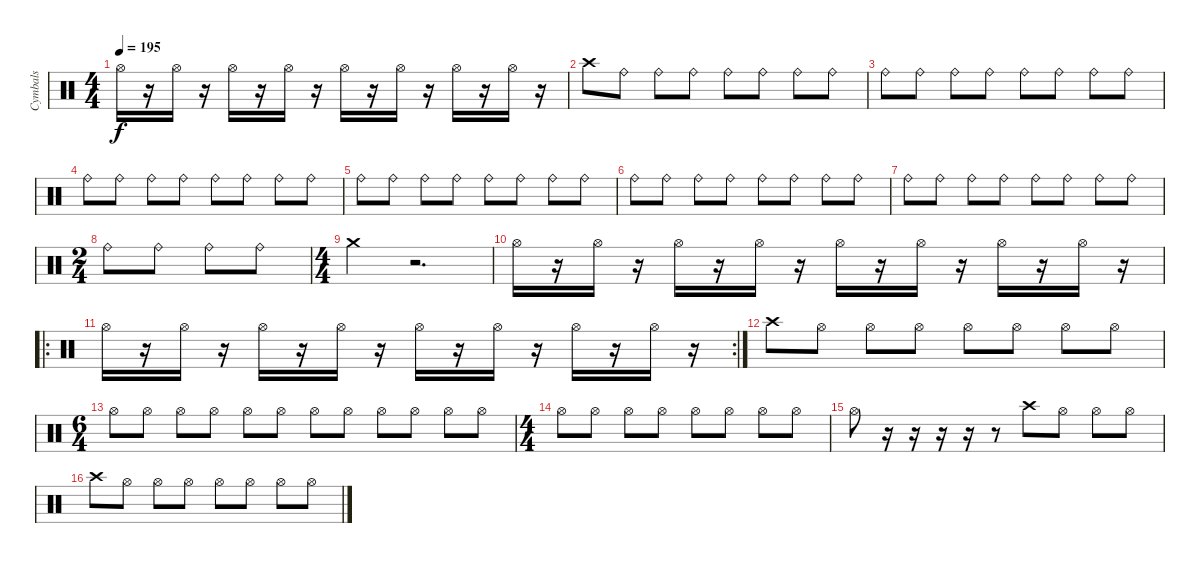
\track ("Cymbals" "Cymbals") {instrument percussion}
\staff {score}
\articulation defaults
\ts (4 4)
\tempo 195
\clef neutral
\ks c "Hi-Hat (open)".16{dy f}
r.16 "Hi-Hat (open)".16 r.16 "Hi-Hat (open)".16 r.16 "Hi-Hat (open)".16 r.16 "Hi-Hat (open)".16 r.16 "Hi-Hat (open)".16 r.16 "Hi-Hat (open)".16 r.16 "Hi-Hat (open)".16 r.16 |
"Crash high (hit)".8 "Ride (bell)".8 "Ride (bell)".8 "Ride (bell)".8 "Ride (bell)".8 "Ride (bell)".8 "Ride (bell)".8 "Ride (bell)".8 |
"Ride (bell)".8 "Ride (bell)".8 "Ride (bell)".8 "Ride (bell)".8 "Ride (bell)".8 "Ride (bell)".8 "Ride (bell)".8 "Ride (bell)".8 |
"Ride (bell)".8 "Ride (bell)".8 "Ride (bell)".8 "Ride (bell)".8 "Ride (bell)".8 "Ride (bell)".8 "Ride (bell)".8 "Ride (bell)".8 |
"Ride (bell)".8 "Ride (bell)".8 "Ride (bell)".8 "Ride (bell)".8 "Ride (bell)".8 "Ride (bell)".8 "Ride (bell)".8 "Ride (bell)".8 |
"Ride (bell)".8 "Ride (bell)".8 "Ride (bell)".8 "Ride (bell)".8 "Ride (bell)".8 "Ride (bell)".8 "Ride (bell)".8 "Ride (bell)".8 |
"Ride (bell)".8 "Ride (bell)".8 "Ride (bell)".8 "Ride (bell)".8 "Ride (bell)".8 "Ride (bell)".8 "Ride (bell)".8 "Ride (bell)".8 |
\ts (2 4)
"Ride (bell)".8 "Ride (bell)".8 "Ride (bell)".8 "Ride (bell)".8 |
\ts (4 4)
"Crash medium (hit)".4 r.2{d} |
"Hi-Hat (open)".16 r.16 "Hi-Hat (open)".16 r.16 "Hi-Hat (open)".16 r.16 "Hi-Hat (open)".16 r.16 "Hi-Hat (open)".16 r.16 "Hi-Hat (open)".16 r.16 "Hi-Hat (open)".16 r.16 "Hi-Hat (open)".16 r.16 |
\ro
\rc 2 "Hi-Hat (open)".16
r.16 "Hi-Hat (open)".16 r.16 "Hi-Hat (open)".16 r.16 "Hi-Hat (open)".16 r.16 "Hi-Hat (open)".16 r.16 "Hi-Hat (open)".16 r.16 "Hi-Hat (open)".16 r.16 "Hi-Hat (open)".16 r.16 |
"Crash high (hit)".8 "Hi-Hat (open)".8 "Hi-Hat (open)".8 "Hi-Hat (open)".8 "Hi-Hat (open)".8 "Hi-Hat (open)".8 "Hi-Hat (open)".8 "Hi-Hat (open)".8 |
\ts (6 4)
"Hi-Hat (open)".8 "Hi-Hat (open)".8 "Hi-Hat (open)".8 "Hi-Hat (open)".8 "Hi-Hat (open)".8 "Hi-Hat (open)".8 "Hi-Hat (open)".8 "Hi-Hat (open)".8 "Hi-Hat (open)".8 "Hi-Hat (open)".8 "Hi-Hat (open)".8 "Hi-Hat (open)".8 |
\ts (4 4)
"Hi-Hat (open)".8 "Hi-Hat (open)".8 "Hi-Hat (open)".8 "Hi-Hat (open)".8 "Hi-Hat (open)".8 "Hi-Hat (open)".8 "Hi-Hat (open)".8 "Hi-Hat (open)".8 |
"Hi-Hat (open)".8 r.16 r.16 r.16 r.16 r.8 "Crash high (hit)".8 "Hi-Hat (open)".8 "Hi-Hat (open)".8 "Hi-Hat (open)".8 |
"Crash high (hit)".8 "Hi-Hat (open)".8 "Hi-Hat (open)".8 "Hi-Hat (open)".8 "Hi-Hat (open)".8 "Hi-Hat (open)".8 "Hi-Hat (open)".8 "Hi-Hat (open)".8
